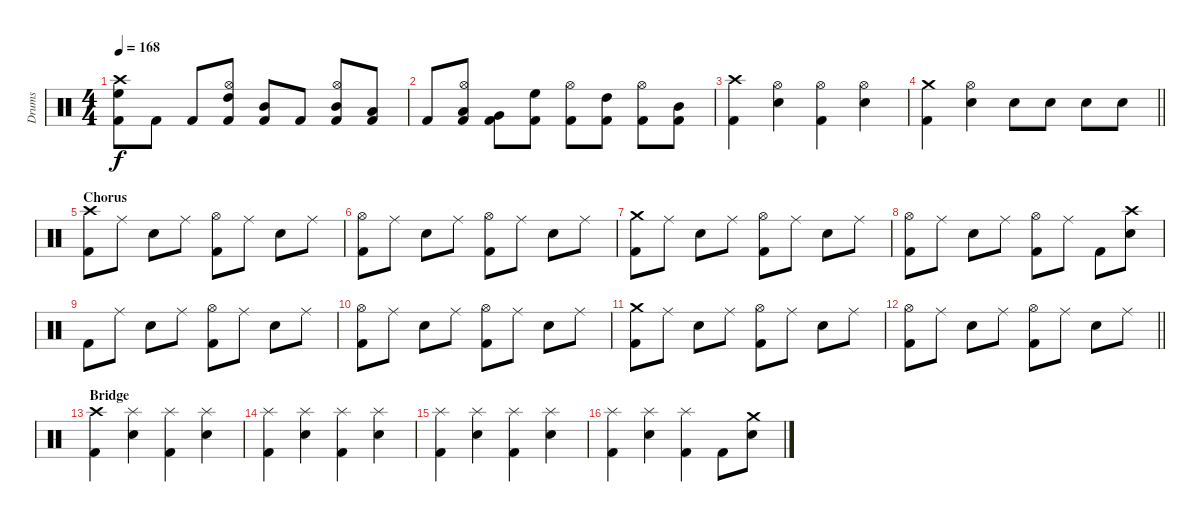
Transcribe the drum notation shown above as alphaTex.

\track ("Drums" "Drums") {instrument percussion}
\staff {score}
\articulation defaults
\ts (4 4)
\tempo 168
\clef neutral
\ks c
("Crash high (hit)" "High Floor Tom (hit)" "Kick (hit) 2").8{dy f} "Kick (hit) 2".8 "Kick (hit) 2".8 ("Hi-Hat (open)" "High Tom (hit)" "Kick (hit) 2").8 ("Mid Tom (hit)" "Kick (hit) 2").8 "Kick (hit) 2".8 ("Hi-Hat (open)" "Mid Tom (hit)" "Kick (hit) 2").8 ("Low Tom (hit)" "Kick (hit) 2").8 |
"Kick (hit) 2".8 ("Hi-Hat (open)" "Low Tom (hit)" "Kick (hit) 2").8 ("Very Low Tom (hit)" "Kick (hit) 2").8 ("High Floor Tom (hit)" "Kick (hit) 2").8 ("Hi-Hat (open)" "Kick (hit) 2").8 ("High Tom (hit)" "Kick (hit) 2").8 ("Hi-Hat (open)" "Kick (hit) 2").8 ("Mid Tom (hit)" "Kick (hit) 2").8 |
("Crash high (hit)" "Kick (hit) 2").4 ("Hi-Hat (open)" "Snare (hit) 2").4 ("Hi-Hat (open)" "Kick (hit) 2").4 ("Hi-Hat (open)" "Snare (hit) 2").4 |
\barLineRight lightlight
("Crash medium (hit)" "Kick (hit) 2").4 ("Hi-Hat (open)" "Snare (hit) 2").4 "Snare (hit) 2".8 "Snare (hit) 2".8 "Snare (hit) 2".8 "Snare (hit) 2".8 |
\section ("" "Chorus")
("Crash high (hit)" "Kick (hit) 2").8 "Ride (middle)".8 "Snare (hit) 2".8 "Ride (middle)".8 ("Hi-Hat (open)" "Kick (hit) 2").8 "Ride (middle)".8 "Snare (hit) 2".8 "Ride (middle)".8 |
("Hi-Hat (open)" "Kick (hit) 2").8 "Ride (middle)".8 "Snare (hit) 2".8 "Ride (middle)".8 ("Hi-Hat (open)" "Kick (hit) 2").8 "Ride (middle)".8 "Snare (hit) 2".8 "Ride (middle)".8 |
("Crash medium (hit)" "Kick (hit) 2").8 "Ride (middle)".8 "Snare (hit) 2".8 "Ride (middle)".8 ("Hi-Hat (open)" "Kick (hit) 2").8 "Ride (middle)".8 "Snare (hit) 2".8 "Ride (middle)".8 |
("Hi-Hat (open)" "Kick (hit) 2").8 "Ride (middle)".8 "Snare (hit) 2".8 "Ride (middle)".8 ("Hi-Hat (open)" "Kick (hit) 2").8 "Ride (middle)".8 "Kick (hit) 2".8 ("Crash high (hit)" "Snare (hit) 2").8 |
"Kick (hit) 2".8 "Ride (middle)".8 "Snare (hit) 2".8 "Ride (middle)".8 ("Hi-Hat (open)" "Kick (hit) 2").8 "Ride (middle)".8 "Snare (hit) 2".8 "Ride (middle)".8 |
("Hi-Hat (open)" "Kick (hit) 2").8 "Ride (middle)".8 "Snare (hit) 2".8 "Ride (middle)".8 ("Hi-Hat (open)" "Kick (hit) 2").8 "Ride (middle)".8 "Snare (hit) 2".8 "Ride (middle)".8 |
("Crash medium (hit)" "Kick (hit) 2").8 "Ride (middle)".8 "Snare (hit) 2".8 "Ride (middle)".8 ("Hi-Hat (open)" "Kick (hit) 2").8 "Ride (middle)".8 "Snare (hit) 2".8 "Ride (middle)".8 |
\barLineRight lightlight
("Hi-Hat (open)" "Kick (hit) 2").8 "Ride (middle)".8 "Snare (hit) 2".8 "Ride (middle)".8 ("Hi-Hat (open)" "Kick (hit) 2").8 "Ride (middle)".8 "Snare (hit) 2".8 "Ride (middle)".8 |
\section ("" "Bridge")
("Crash high (hit)" "Kick (hit) 2").4 ("Splash (hit)" "Snare (hit) 2").4 ("Splash (hit)" "Kick (hit) 2").4 ("Splash (hit)" "Snare (hit) 2").4 |
("Splash (hit)" "Kick (hit) 2").4 ("Splash (hit)" "Snare (hit) 2").4 ("Splash (hit)" "Kick (hit) 2").4 ("Splash (hit)" "Snare (hit) 2").4 |
("Splash (hit)" "Kick (hit) 2").4 ("Splash (hit)" "Snare (hit) 2").4 ("Splash (hit)" "Kick (hit) 2").4 ("Splash (hit)" "Snare (hit) 2").4 |
("Splash (hit)" "Kick (hit) 2").4 ("Splash (hit)" "Snare (hit) 2").4 ("Splash (hit)" "Kick (hit) 2").4 "Kick (hit) 2".8 ("Crash medium (hit)" "Snare (hit) 2").8
